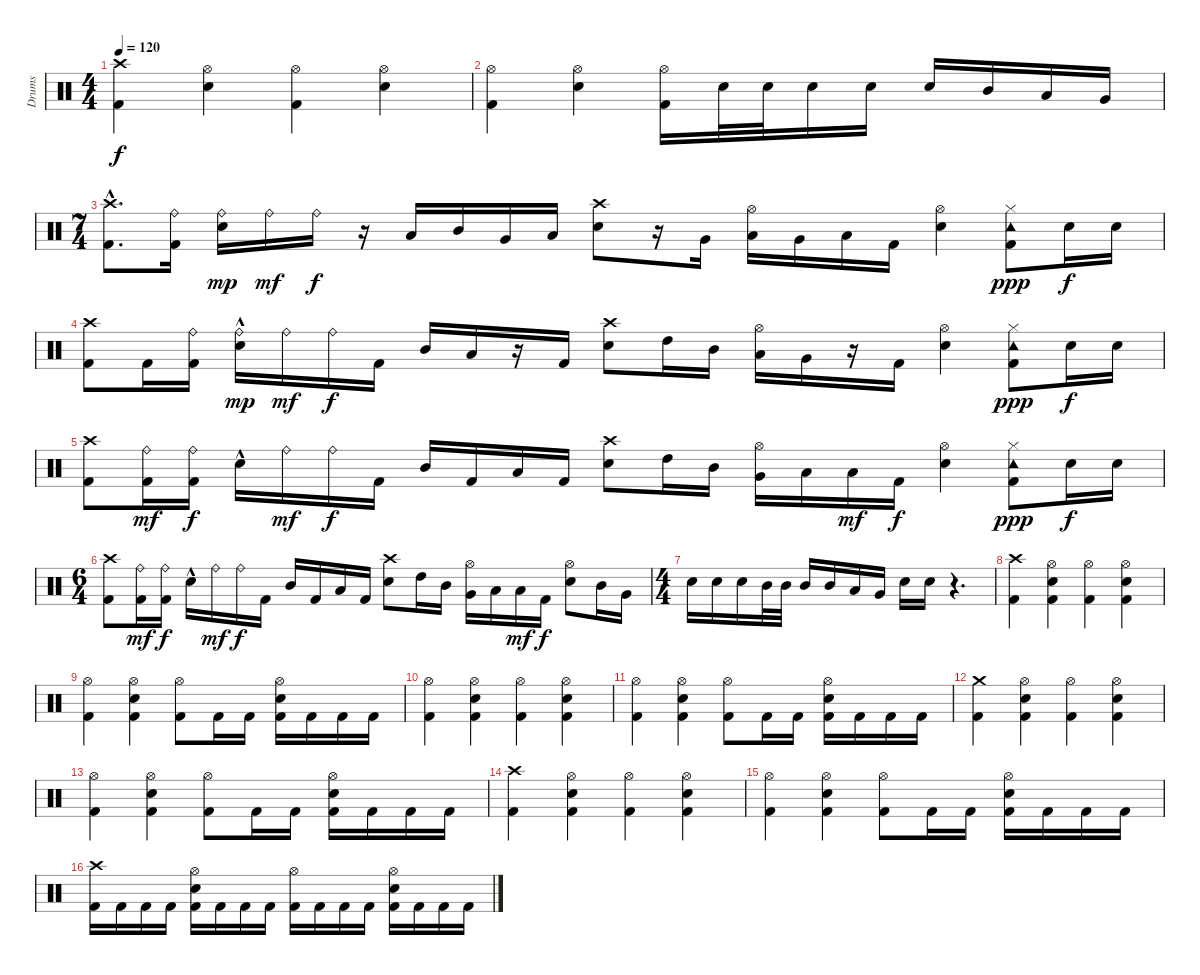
\track ("Drums" "Drums") {instrument percussion}
\staff {score}
\articulation defaults
\ts (4 4)
\tempo 120
\clef neutral
\ks c
("Kick (hit) 2" "Crash high (hit)").4{dy f} ("Electric Snare (hit)" "Hi-Hat (open)").4 ("Kick (hit) 2" "Hi-Hat (open)").4 ("Electric Snare (hit)" "Hi-Hat (open)").4 |
("Kick (hit) 2" "Hi-Hat (open)").4 ("Electric Snare (hit)" "Hi-Hat (open)").4 ("Kick (hit) 2" "Hi-Hat (open)").16 "Electric Snare (hit)".32 "Electric Snare (hit)".32 "Electric Snare (hit)".16 "Electric Snare (hit)".16 "Electric Snare (hit)".16 "Mid Tom (hit)".16 "Low Tom (hit)".16 "Very Low Tom (hit)".16 |
\ts (7 4)
("Crash high (hit)" "Kick (hit) 2"{hac}).8{d} ("Kick (hit) 2" "Ride (bell)").16 ("Electric Snare (hit)" "Ride (bell)").16{dy mp} "Ride (bell)".16{dy mf} "Ride (bell)".16{dy f} r.16 "Low Tom (hit)".16 "Mid Tom (hit)".16 "Very Low Tom (hit)".16 "Low Floor Tom (hit)".16 ("Crash high (hit)" "Electric Snare (hit)").8 r.16 "Very Low Tom (hit)".16 ("Low Tom (hit)" "Hi-Hat (open)").16 "Very Low Tom (hit)".16 "Low Floor Tom (hit)".16 "Kick (hit) 2".16 ("Electric Snare (hit)" "Hi-Hat (open)").4 ("Tambourine (hit)" "Kick (hit) 2" "Hi-Hat (closed)").8{dy ppp} "Electric Snare (hit)".16{dy f} "Electric Snare (hit)".16 |
("Crash high (hit)" "Kick (hit) 2").8 "Kick (hit) 2".16 ("Kick (hit) 2" "Ride (bell)").16 ("Ride (bell)" "Electric Snare (hit)"{hac}).16{dy mp} "Ride (bell)".16{dy mf} "Ride (bell)".16{dy f} "Kick (hit) 2".16 "Mid Tom (hit)".16 "Low Tom (hit)".16 r.16 "Kick (hit) 2".16 ("Crash high (hit)" "Electric Snare (hit)").8 "High Tom (hit)".16 "Mid Tom (hit)".16 ("Low Tom (hit)" "Hi-Hat (open)").16 "Very Low Tom (hit)".16 r.16 "Kick (hit) 2".16 ("Electric Snare (hit)" "Hi-Hat (open)").4 ("Tambourine (hit)" "Kick (hit) 2" "Hi-Hat (closed)").8{dy ppp} "Electric Snare (hit)".16{dy f} "Electric Snare (hit)".16 |
("Kick (hit) 2" "Crash high (hit)").8 ("Kick (hit) 2" "Ride (bell)").16{dy mf} ("Kick (hit) 2" "Ride (bell)").16{dy f} "Electric Snare (hit)"{hac}.16 "Ride (bell)".16{dy mf} "Ride (bell)".16{dy f} "Kick (hit) 2".16 "Mid Tom (hit)".16 "Kick (hit) 2".16 "Low Tom (hit)".16 "Kick (hit) 2".16 ("Crash high (hit)" "Electric Snare (hit)").8 "High Tom (hit)".16 "Mid Tom (hit)".16 ("Hi-Hat (open)" "Very Low Tom (hit)").16 "Low Floor Tom (hit)".16 "Low Floor Tom (hit)".16{dy mf} "Kick (hit) 2".16{dy f} ("Electric Snare (hit)" "Hi-Hat (open)").4 ("Tambourine (hit)" "Kick (hit) 2" "Hi-Hat (closed)").8{dy ppp} "Electric Snare (hit)".16{dy f} "Electric Snare (hit)".16 |
\ts (6 4)
("Crash high (hit)" "Kick (hit) 2").8 ("Kick (hit) 2" "Ride (bell)").16{dy mf} ("Kick (hit) 2" "Ride (bell)").16{dy f} "Electric Snare (hit)"{hac}.16 "Ride (bell)".16{dy mf} "Ride (bell)".16{dy f} "Kick (hit) 2".16 "Mid Tom (hit)".16 "Kick (hit) 2".16 "Low Tom (hit)".16 "Kick (hit) 2".16 ("Crash high (hit)" "Electric Snare (hit)").8 "High Tom (hit)".16 "Mid Tom (hit)".16 ("Hi-Hat (open)" "Very Low Tom (hit)").16 "Low Floor Tom (hit)".16 "Low Floor Tom (hit)".16{dy mf} "Kick (hit) 2".16{dy f} ("Electric Snare (hit)" "Hi-Hat (open)").8 "Mid Tom (hit)".16 "Very Low Tom (hit)".16 |
\ts (4 4)
"Electric Snare (hit)".16 "Electric Snare (hit)".16 "Electric Snare (hit)".16 "Mid Tom (hit)".32 "Mid Tom (hit)".32 "Mid Tom (hit)".16 "Mid Tom (hit)".16 "Low Tom (hit)".16 "Very Low Tom (hit)".16 "Electric Snare (hit)".16 "Electric Snare (hit)".16 r.4{d} |
("Kick (hit) 2" "Crash high (hit)").4 ("Hi-Hat (open)" "Electric Snare (hit)" "Kick (hit) 2").4 ("Hi-Hat (open)" "Kick (hit) 2").4 ("Hi-Hat (open)" "Electric Snare (hit)" "Kick (hit) 2").4 |
("Hi-Hat (open)" "Kick (hit) 2").4 ("Hi-Hat (open)" "Electric Snare (hit)" "Kick (hit) 2").4 ("Hi-Hat (open)" "Kick (hit) 2").8 "Kick (hit) 2".16 "Kick (hit) 2".16 ("Hi-Hat (open)" "Kick (hit) 2" "Electric Snare (hit)").16 "Kick (hit) 2".16 "Kick (hit) 2".16 "Kick (hit) 2".16 |
("Kick (hit) 2" "Hi-Hat (open)").4 ("Hi-Hat (open)" "Electric Snare (hit)" "Kick (hit) 2").4 ("Hi-Hat (open)" "Kick (hit) 2").4 ("Hi-Hat (open)" "Electric Snare (hit)" "Kick (hit) 2").4 |
("Hi-Hat (open)" "Kick (hit) 2").4 ("Hi-Hat (open)" "Electric Snare (hit)" "Kick (hit) 2").4 ("Hi-Hat (open)" "Kick (hit) 2").8 "Kick (hit) 2".16 "Kick (hit) 2".16 ("Hi-Hat (open)" "Kick (hit) 2" "Electric Snare (hit)").16 "Kick (hit) 2".16 "Kick (hit) 2".16 "Kick (hit) 2".16 |
("Kick (hit) 2" "Crash medium (hit)").4 ("Hi-Hat (open)" "Electric Snare (hit)" "Kick (hit) 2").4 ("Hi-Hat (open)" "Kick (hit) 2").4 ("Hi-Hat (open)" "Electric Snare (hit)" "Kick (hit) 2").4 |
("Hi-Hat (open)" "Kick (hit) 2").4 ("Hi-Hat (open)" "Electric Snare (hit)" "Kick (hit) 2").4 ("Hi-Hat (open)" "Kick (hit) 2").8 "Kick (hit) 2".16 "Kick (hit) 2".16 ("Hi-Hat (open)" "Kick (hit) 2" "Electric Snare (hit)").16 "Kick (hit) 2".16 "Kick (hit) 2".16 "Kick (hit) 2".16 |
("Kick (hit) 2" "Crash high (hit)").4 ("Hi-Hat (open)" "Electric Snare (hit)" "Kick (hit) 2").4 ("Hi-Hat (open)" "Kick (hit) 2").4 ("Hi-Hat (open)" "Electric Snare (hit)" "Kick (hit) 2").4 |
("Hi-Hat (open)" "Kick (hit) 2").4 ("Hi-Hat (open)" "Electric Snare (hit)" "Kick (hit) 2").4 ("Hi-Hat (open)" "Kick (hit) 2").8 "Kick (hit) 2".16 "Kick (hit) 2".16 ("Hi-Hat (open)" "Kick (hit) 2" "Electric Snare (hit)").16 "Kick (hit) 2".16 "Kick (hit) 2".16 "Kick (hit) 2".16 |
("Kick (hit) 2" "Crash high (hit)").16 "Kick (hit) 2".16 "Kick (hit) 2".16 "Kick (hit) 2".16 ("Kick (hit) 2" "Electric Snare (hit)" "Hi-Hat (open)").16 "Kick (hit) 2".16 "Kick (hit) 2".16 "Kick (hit) 2".16 ("Kick (hit) 2" "Hi-Hat (open)").16 "Kick (hit) 2".16 "Kick (hit) 2".16 "Kick (hit) 2".16 ("Kick (hit) 2" "Electric Snare (hit)" "Hi-Hat (open)").16 "Kick (hit) 2".16 "Kick (hit) 2".16 "Kick (hit) 2".16
